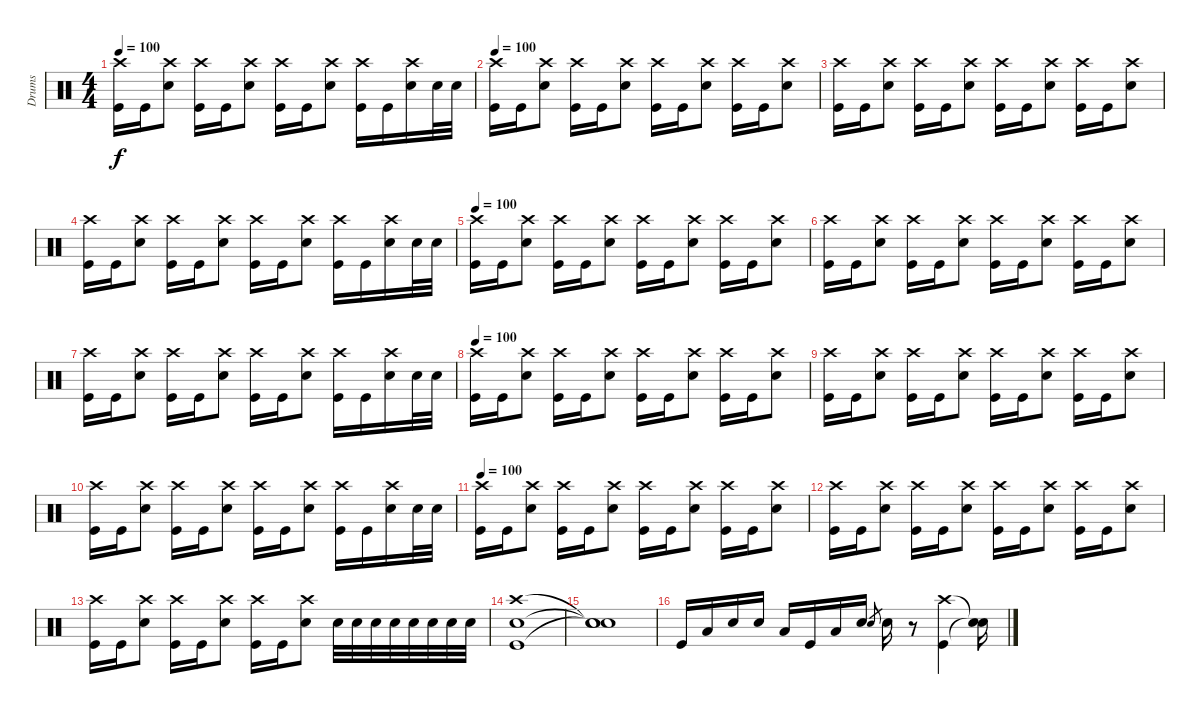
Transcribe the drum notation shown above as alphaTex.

\track ("Drums" "Drums") {instrument percussion}
\staff {score}
\articulation defaults
\ts (4 4)
\tempo 100
\clef neutral
\ks c
("Crash high (hit)" "Kick (hit)").16{dy f} "Kick (hit)".16 ("Crash high (hit)" "Snare (hit) 2").8 ("Crash high (hit)" "Kick (hit)").16 "Kick (hit)".16 ("Crash high (hit)" "Snare (hit) 2").8 ("Crash high (hit)" "Kick (hit)").16 "Kick (hit)".16 ("Crash high (hit)" "Snare (hit) 2").8 ("Crash high (hit)" "Kick (hit)").16 "Kick (hit)".16 ("Crash high (hit)" "Snare (hit) 2").16 "Snare (hit) 2".32 "Snare (hit) 2".32 |
\tempo 100
("Crash high (hit)" "Kick (hit)").16 "Kick (hit)".16 ("Crash high (hit)" "Snare (hit) 2").8 ("Crash high (hit)" "Kick (hit)").16 "Kick (hit)".16 ("Crash high (hit)" "Snare (hit) 2").8 ("Crash high (hit)" "Kick (hit)").16 "Kick (hit)".16 ("Crash high (hit)" "Snare (hit) 2").8 ("Crash high (hit)" "Kick (hit)").16 "Kick (hit)".16 ("Crash high (hit)" "Snare (hit) 2").8 |
("Crash high (hit)" "Kick (hit)").16 "Kick (hit)".16 ("Crash high (hit)" "Snare (hit) 2").8 ("Crash high (hit)" "Kick (hit)").16 "Kick (hit)".16 ("Crash high (hit)" "Snare (hit) 2").8 ("Crash high (hit)" "Kick (hit)").16 "Kick (hit)".16 ("Crash high (hit)" "Snare (hit) 2").8 ("Crash high (hit)" "Kick (hit)").16 "Kick (hit)".16 ("Crash high (hit)" "Snare (hit) 2").8 |
("Crash high (hit)" "Kick (hit)").16 "Kick (hit)".16 ("Crash high (hit)" "Snare (hit) 2").8 ("Crash high (hit)" "Kick (hit)").16 "Kick (hit)".16 ("Crash high (hit)" "Snare (hit) 2").8 ("Crash high (hit)" "Kick (hit)").16 "Kick (hit)".16 ("Crash high (hit)" "Snare (hit) 2").8 ("Crash high (hit)" "Kick (hit)").16 "Kick (hit)".16 ("Crash high (hit)" "Snare (hit) 2").16 "Snare (hit) 2".32 "Snare (hit) 2".32 |
\tempo 100
("Crash high (hit)" "Kick (hit)").16 "Kick (hit)".16 ("Crash high (hit)" "Snare (hit) 2").8 ("Crash high (hit)" "Kick (hit)").16 "Kick (hit)".16 ("Crash high (hit)" "Snare (hit) 2").8 ("Crash high (hit)" "Kick (hit)").16 "Kick (hit)".16 ("Crash high (hit)" "Snare (hit) 2").8 ("Crash high (hit)" "Kick (hit)").16 "Kick (hit)".16 ("Crash high (hit)" "Snare (hit) 2").8 |
("Crash high (hit)" "Kick (hit)").16 "Kick (hit)".16 ("Crash high (hit)" "Snare (hit) 2").8 ("Crash high (hit)" "Kick (hit)").16 "Kick (hit)".16 ("Crash high (hit)" "Snare (hit) 2").8 ("Crash high (hit)" "Kick (hit)").16 "Kick (hit)".16 ("Crash high (hit)" "Snare (hit) 2").8 ("Crash high (hit)" "Kick (hit)").16 "Kick (hit)".16 ("Crash high (hit)" "Snare (hit) 2").8 |
("Crash high (hit)" "Kick (hit)").16 "Kick (hit)".16 ("Crash high (hit)" "Snare (hit) 2").8 ("Crash high (hit)" "Kick (hit)").16 "Kick (hit)".16 ("Crash high (hit)" "Snare (hit) 2").8 ("Crash high (hit)" "Kick (hit)").16 "Kick (hit)".16 ("Crash high (hit)" "Snare (hit) 2").8 ("Crash high (hit)" "Kick (hit)").16 "Kick (hit)".16 ("Crash high (hit)" "Snare (hit) 2").16 "Snare (hit) 2".32 "Snare (hit) 2".32 |
\tempo 100
("Crash high (hit)" "Kick (hit)").16 "Kick (hit)".16 ("Crash high (hit)" "Snare (hit) 2").8 ("Crash high (hit)" "Kick (hit)").16 "Kick (hit)".16 ("Crash high (hit)" "Snare (hit) 2").8 ("Crash high (hit)" "Kick (hit)").16 "Kick (hit)".16 ("Crash high (hit)" "Snare (hit) 2").8 ("Crash high (hit)" "Kick (hit)").16 "Kick (hit)".16 ("Crash high (hit)" "Snare (hit) 2").8 |
("Crash high (hit)" "Kick (hit)").16 "Kick (hit)".16 ("Crash high (hit)" "Snare (hit) 2").8 ("Crash high (hit)" "Kick (hit)").16 "Kick (hit)".16 ("Crash high (hit)" "Snare (hit) 2").8 ("Crash high (hit)" "Kick (hit)").16 "Kick (hit)".16 ("Crash high (hit)" "Snare (hit) 2").8 ("Crash high (hit)" "Kick (hit)").16 "Kick (hit)".16 ("Crash high (hit)" "Snare (hit) 2").8 |
("Crash high (hit)" "Kick (hit)").16 "Kick (hit)".16 ("Crash high (hit)" "Snare (hit) 2").8 ("Crash high (hit)" "Kick (hit)").16 "Kick (hit)".16 ("Crash high (hit)" "Snare (hit) 2").8 ("Crash high (hit)" "Kick (hit)").16 "Kick (hit)".16 ("Crash high (hit)" "Snare (hit) 2").8 ("Crash high (hit)" "Kick (hit)").16 "Kick (hit)".16 ("Crash high (hit)" "Snare (hit) 2").16 "Snare (hit) 2".32 "Snare (hit) 2".32 |
\tempo 100
("Crash high (hit)" "Kick (hit)").16 "Kick (hit)".16 ("Crash high (hit)" "Snare (hit) 2").8 ("Crash high (hit)" "Kick (hit)").16 "Kick (hit)".16 ("Crash high (hit)" "Snare (hit) 2").8 ("Crash high (hit)" "Kick (hit)").16 "Kick (hit)".16 ("Crash high (hit)" "Snare (hit) 2").8 ("Crash high (hit)" "Kick (hit)").16 "Kick (hit)".16 ("Crash high (hit)" "Snare (hit) 2").8 |
("Crash high (hit)" "Kick (hit)").16 "Kick (hit)".16 ("Crash high (hit)" "Snare (hit) 2").8 ("Crash high (hit)" "Kick (hit)").16 "Kick (hit)".16 ("Crash high (hit)" "Snare (hit) 2").8 ("Crash high (hit)" "Kick (hit)").16 "Kick (hit)".16 ("Crash high (hit)" "Snare (hit) 2").8 ("Crash high (hit)" "Kick (hit)").16 "Kick (hit)".16 ("Crash high (hit)" "Snare (hit) 2").8 |
("Crash high (hit)" "Kick (hit)").16 "Kick (hit)".16 ("Crash high (hit)" "Snare (hit) 2").8 ("Crash high (hit)" "Kick (hit)").16 "Kick (hit)".16 ("Crash high (hit)" "Snare (hit) 2").8 ("Crash high (hit)" "Kick (hit)").16 "Kick (hit)".16 ("Crash high (hit)" "Snare (hit) 2").8 "Snare (hit) 2".32 "Snare (hit) 2".32 "Snare (hit) 2".32 "Snare (hit) 2".32 "Snare (hit) 2".32 "Snare (hit) 2".32 "Snare (hit) 2".32 "Snare (hit) 2".32 |
("Crash high (hit)" "Snare (hit) 2" "Kick (hit)").1 |
("Snare (hit)"{t} "Snare (hit)"{t} "Snare (hit)"{t}).1 |
"Kick (hit)".16 "Low Floor Tom (hit)".16 "Snare (hit) 2".16 "Snare (hit) 2".16 "Low Floor Tom (hit)".16 "Kick (hit)".16 "Low Floor Tom (hit)".16 "Snare (hit) 2".16 "Snare (hit) 2".8{gr} "Snare (hit) 2".16 r.8 ("Crash high (hit)" "Kick (hit)").4 ("Snare (hit)"{t} "Snare (hit)"{t}).16
